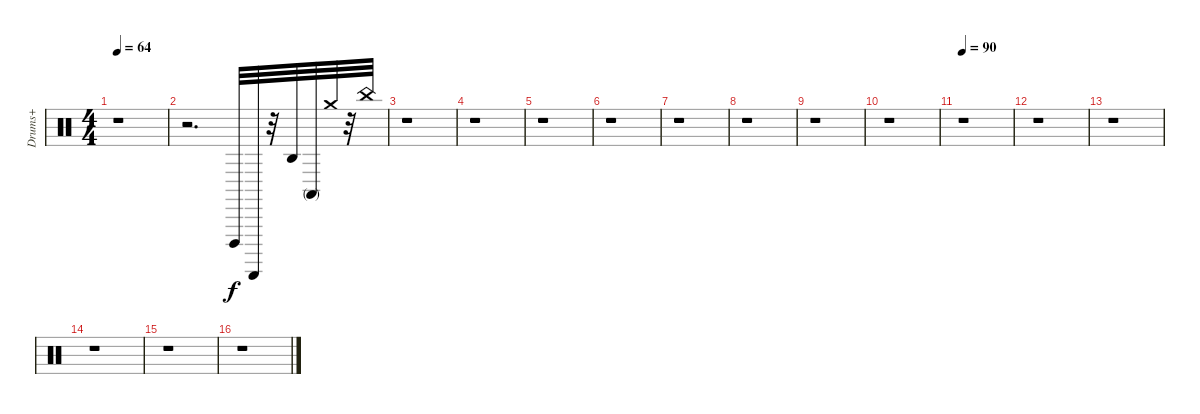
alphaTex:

\track ("Drums+" "Drums+") {instrument percussion}
\staff {score}
\articulation defaults
\ts (4 4)
\tempo 64
\clef neutral
\ks c
r.1{dy mf} |
r.2{d} "Cuica (open)".32{dy f} "Guiro (scrap-return)".32 r.32 "Agogo high (hit)".32 "Conga high (mute)".32 "Crash medium (hit)".32 r.32 "China (hit)".32 |
r.1 |
r.1 |
r.1 |
r.1 |
r.1 |
r.1 |
r.1 |
r.1 |
\tempo 90
r.1 |
r.1 |
r.1 |
r.1 |
r.1 |
r.1
